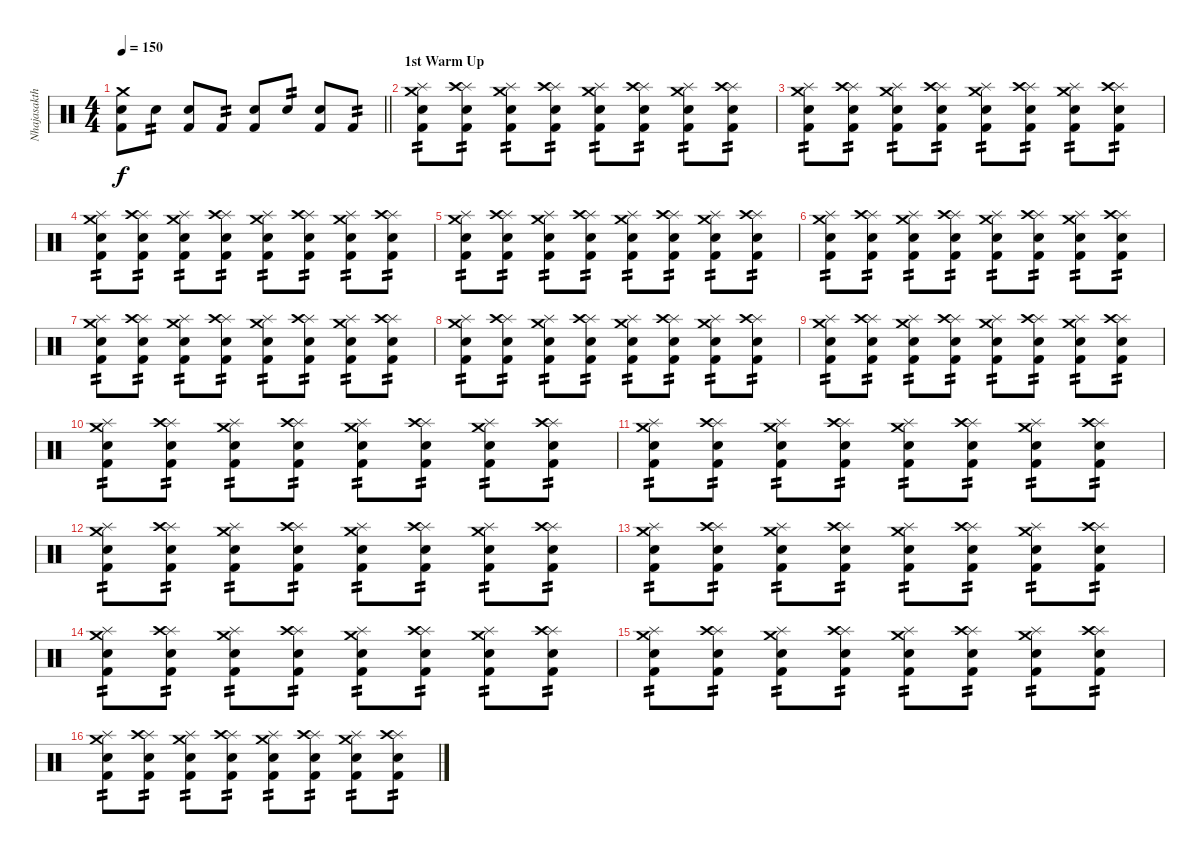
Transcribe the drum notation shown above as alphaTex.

\track ("Nhajasakthee" "Nhajasakth") {instrument percussion}
\staff {score}
\articulation defaults
\ts (4 4)
\tempo 150
\clef neutral
\barLineRight lightlight
\ks c
("Crash medium (hit)" "Kick (hit) 2" "Electric Snare (hit)").8{dy f} "Electric Snare (hit)".8{tp 2} ("Kick (hit) 2" "Electric Snare (hit)").8 "Kick (hit) 2".8{tp 2} ("Kick (hit) 2" "Electric Snare (hit)").8 "Electric Snare (hit)".8{tp 2} ("Kick (hit) 2" "Electric Snare (hit)").8 "Kick (hit) 2".8{tp 2} |
\section ("" "1st Warm Up")
("Splash (hit)" "Crash medium (hit)" "Kick (hit) 2" "Electric Snare (hit)").8{tp 2} ("Splash (hit)" "Crash high (hit)" "Kick (hit) 2" "Electric Snare (hit)").8{tp 2} ("Splash (hit)" "Crash medium (hit)" "Kick (hit) 2" "Electric Snare (hit)").8{tp 2} ("Splash (hit)" "Crash high (hit)" "Kick (hit) 2" "Electric Snare (hit)").8{tp 2} ("Splash (hit)" "Crash medium (hit)" "Kick (hit) 2" "Electric Snare (hit)").8{tp 2} ("Splash (hit)" "Crash high (hit)" "Kick (hit) 2" "Electric Snare (hit)").8{tp 2} ("Splash (hit)" "Crash medium (hit)" "Kick (hit) 2" "Electric Snare (hit)").8{tp 2} ("Splash (hit)" "Crash high (hit)" "Kick (hit) 2" "Electric Snare (hit)").8{tp 2} |
("Splash (hit)" "Crash medium (hit)" "Kick (hit) 2" "Electric Snare (hit)").8{tp 2} ("Splash (hit)" "Crash high (hit)" "Kick (hit) 2" "Electric Snare (hit)").8{tp 2} ("Splash (hit)" "Crash medium (hit)" "Kick (hit) 2" "Electric Snare (hit)").8{tp 2} ("Splash (hit)" "Crash high (hit)" "Kick (hit) 2" "Electric Snare (hit)").8{tp 2} ("Splash (hit)" "Crash medium (hit)" "Kick (hit) 2" "Electric Snare (hit)").8{tp 2} ("Splash (hit)" "Crash high (hit)" "Kick (hit) 2" "Electric Snare (hit)").8{tp 2} ("Splash (hit)" "Crash medium (hit)" "Kick (hit) 2" "Electric Snare (hit)").8{tp 2} ("Splash (hit)" "Crash high (hit)" "Kick (hit) 2" "Electric Snare (hit)").8{tp 2} |
("Splash (hit)" "Crash medium (hit)" "Kick (hit) 2" "Electric Snare (hit)").8{tp 2} ("Splash (hit)" "Crash high (hit)" "Kick (hit) 2" "Electric Snare (hit)").8{tp 2} ("Splash (hit)" "Crash medium (hit)" "Kick (hit) 2" "Electric Snare (hit)").8{tp 2} ("Splash (hit)" "Crash high (hit)" "Kick (hit) 2" "Electric Snare (hit)").8{tp 2} ("Splash (hit)" "Crash medium (hit)" "Kick (hit) 2" "Electric Snare (hit)").8{tp 2} ("Splash (hit)" "Crash high (hit)" "Kick (hit) 2" "Electric Snare (hit)").8{tp 2} ("Splash (hit)" "Crash medium (hit)" "Kick (hit) 2" "Electric Snare (hit)").8{tp 2} ("Splash (hit)" "Crash high (hit)" "Kick (hit) 2" "Electric Snare (hit)").8{tp 2} |
("Splash (hit)" "Crash medium (hit)" "Kick (hit) 2" "Electric Snare (hit)").8{tp 2} ("Splash (hit)" "Crash high (hit)" "Kick (hit) 2" "Electric Snare (hit)").8{tp 2} ("Splash (hit)" "Crash medium (hit)" "Kick (hit) 2" "Electric Snare (hit)").8{tp 2} ("Splash (hit)" "Crash high (hit)" "Kick (hit) 2" "Electric Snare (hit)").8{tp 2} ("Splash (hit)" "Crash medium (hit)" "Kick (hit) 2" "Electric Snare (hit)").8{tp 2} ("Splash (hit)" "Crash high (hit)" "Kick (hit) 2" "Electric Snare (hit)").8{tp 2} ("Splash (hit)" "Crash medium (hit)" "Kick (hit) 2" "Electric Snare (hit)").8{tp 2} ("Splash (hit)" "Crash high (hit)" "Kick (hit) 2" "Electric Snare (hit)").8{tp 2} |
("Splash (hit)" "Crash medium (hit)" "Kick (hit) 2" "Electric Snare (hit)").8{tp 2} ("Splash (hit)" "Crash high (hit)" "Kick (hit) 2" "Electric Snare (hit)").8{tp 2} ("Splash (hit)" "Crash medium (hit)" "Kick (hit) 2" "Electric Snare (hit)").8{tp 2} ("Splash (hit)" "Crash high (hit)" "Kick (hit) 2" "Electric Snare (hit)").8{tp 2} ("Splash (hit)" "Crash medium (hit)" "Kick (hit) 2" "Electric Snare (hit)").8{tp 2} ("Splash (hit)" "Crash high (hit)" "Kick (hit) 2" "Electric Snare (hit)").8{tp 2} ("Splash (hit)" "Crash medium (hit)" "Kick (hit) 2" "Electric Snare (hit)").8{tp 2} ("Splash (hit)" "Crash high (hit)" "Kick (hit) 2" "Electric Snare (hit)").8{tp 2} |
("Splash (hit)" "Crash medium (hit)" "Kick (hit) 2" "Electric Snare (hit)").8{tp 2} ("Splash (hit)" "Crash high (hit)" "Kick (hit) 2" "Electric Snare (hit)").8{tp 2} ("Splash (hit)" "Crash medium (hit)" "Kick (hit) 2" "Electric Snare (hit)").8{tp 2} ("Splash (hit)" "Crash high (hit)" "Kick (hit) 2" "Electric Snare (hit)").8{tp 2} ("Splash (hit)" "Crash medium (hit)" "Kick (hit) 2" "Electric Snare (hit)").8{tp 2} ("Splash (hit)" "Crash high (hit)" "Kick (hit) 2" "Electric Snare (hit)").8{tp 2} ("Splash (hit)" "Crash medium (hit)" "Kick (hit) 2" "Electric Snare (hit)").8{tp 2} ("Splash (hit)" "Crash high (hit)" "Kick (hit) 2" "Electric Snare (hit)").8{tp 2} |
("Splash (hit)" "Crash medium (hit)" "Kick (hit) 2" "Electric Snare (hit)").8{tp 2} ("Splash (hit)" "Crash high (hit)" "Kick (hit) 2" "Electric Snare (hit)").8{tp 2} ("Splash (hit)" "Crash medium (hit)" "Kick (hit) 2" "Electric Snare (hit)").8{tp 2} ("Splash (hit)" "Crash high (hit)" "Kick (hit) 2" "Electric Snare (hit)").8{tp 2} ("Splash (hit)" "Crash medium (hit)" "Kick (hit) 2" "Electric Snare (hit)").8{tp 2} ("Splash (hit)" "Crash high (hit)" "Kick (hit) 2" "Electric Snare (hit)").8{tp 2} ("Splash (hit)" "Crash medium (hit)" "Kick (hit) 2" "Electric Snare (hit)").8{tp 2} ("Splash (hit)" "Crash high (hit)" "Kick (hit) 2" "Electric Snare (hit)").8{tp 2} |
("Splash (hit)" "Crash medium (hit)" "Kick (hit) 2" "Electric Snare (hit)").8{tp 2} ("Splash (hit)" "Crash high (hit)" "Kick (hit) 2" "Electric Snare (hit)").8{tp 2} ("Splash (hit)" "Crash medium (hit)" "Kick (hit) 2" "Electric Snare (hit)").8{tp 2} ("Splash (hit)" "Crash high (hit)" "Kick (hit) 2" "Electric Snare (hit)").8{tp 2} ("Splash (hit)" "Crash medium (hit)" "Kick (hit) 2" "Electric Snare (hit)").8{tp 2} ("Splash (hit)" "Crash high (hit)" "Kick (hit) 2" "Electric Snare (hit)").8{tp 2} ("Splash (hit)" "Crash medium (hit)" "Kick (hit) 2" "Electric Snare (hit)").8{tp 2} ("Splash (hit)" "Crash high (hit)" "Kick (hit) 2" "Electric Snare (hit)").8{tp 2} |
("Splash (hit)" "Crash medium (hit)" "Kick (hit) 2" "Electric Snare (hit)").8{tp 2} ("Splash (hit)" "Crash high (hit)" "Kick (hit) 2" "Electric Snare (hit)").8{tp 2} ("Splash (hit)" "Crash medium (hit)" "Kick (hit) 2" "Electric Snare (hit)").8{tp 2} ("Splash (hit)" "Crash high (hit)" "Kick (hit) 2" "Electric Snare (hit)").8{tp 2} ("Splash (hit)" "Crash medium (hit)" "Kick (hit) 2" "Electric Snare (hit)").8{tp 2} ("Splash (hit)" "Crash high (hit)" "Kick (hit) 2" "Electric Snare (hit)").8{tp 2} ("Splash (hit)" "Crash medium (hit)" "Kick (hit) 2" "Electric Snare (hit)").8{tp 2} ("Splash (hit)" "Crash high (hit)" "Kick (hit) 2" "Electric Snare (hit)").8{tp 2} |
("Splash (hit)" "Crash medium (hit)" "Kick (hit) 2" "Electric Snare (hit)").8{tp 2} ("Splash (hit)" "Crash high (hit)" "Kick (hit) 2" "Electric Snare (hit)").8{tp 2} ("Splash (hit)" "Crash medium (hit)" "Kick (hit) 2" "Electric Snare (hit)").8{tp 2} ("Splash (hit)" "Crash high (hit)" "Kick (hit) 2" "Electric Snare (hit)").8{tp 2} ("Splash (hit)" "Crash medium (hit)" "Kick (hit) 2" "Electric Snare (hit)").8{tp 2} ("Splash (hit)" "Crash high (hit)" "Kick (hit) 2" "Electric Snare (hit)").8{tp 2} ("Splash (hit)" "Crash medium (hit)" "Kick (hit) 2" "Electric Snare (hit)").8{tp 2} ("Splash (hit)" "Crash high (hit)" "Kick (hit) 2" "Electric Snare (hit)").8{tp 2} |
("Splash (hit)" "Crash medium (hit)" "Kick (hit) 2" "Electric Snare (hit)").8{tp 2} ("Splash (hit)" "Crash high (hit)" "Kick (hit) 2" "Electric Snare (hit)").8{tp 2} ("Splash (hit)" "Crash medium (hit)" "Kick (hit) 2" "Electric Snare (hit)").8{tp 2} ("Splash (hit)" "Crash high (hit)" "Kick (hit) 2" "Electric Snare (hit)").8{tp 2} ("Splash (hit)" "Crash medium (hit)" "Kick (hit) 2" "Electric Snare (hit)").8{tp 2} ("Splash (hit)" "Crash high (hit)" "Kick (hit) 2" "Electric Snare (hit)").8{tp 2} ("Splash (hit)" "Crash medium (hit)" "Kick (hit) 2" "Electric Snare (hit)").8{tp 2} ("Splash (hit)" "Crash high (hit)" "Kick (hit) 2" "Electric Snare (hit)").8{tp 2} |
("Splash (hit)" "Crash medium (hit)" "Kick (hit) 2" "Electric Snare (hit)").8{tp 2} ("Splash (hit)" "Crash high (hit)" "Kick (hit) 2" "Electric Snare (hit)").8{tp 2} ("Splash (hit)" "Crash medium (hit)" "Kick (hit) 2" "Electric Snare (hit)").8{tp 2} ("Splash (hit)" "Crash high (hit)" "Kick (hit) 2" "Electric Snare (hit)").8{tp 2} ("Splash (hit)" "Crash medium (hit)" "Kick (hit) 2" "Electric Snare (hit)").8{tp 2} ("Splash (hit)" "Crash high (hit)" "Kick (hit) 2" "Electric Snare (hit)").8{tp 2} ("Splash (hit)" "Crash medium (hit)" "Kick (hit) 2" "Electric Snare (hit)").8{tp 2} ("Splash (hit)" "Crash high (hit)" "Kick (hit) 2" "Electric Snare (hit)").8{tp 2} |
("Splash (hit)" "Crash medium (hit)" "Kick (hit) 2" "Electric Snare (hit)").8{tp 2} ("Splash (hit)" "Crash high (hit)" "Kick (hit) 2" "Electric Snare (hit)").8{tp 2} ("Splash (hit)" "Crash medium (hit)" "Kick (hit) 2" "Electric Snare (hit)").8{tp 2} ("Splash (hit)" "Crash high (hit)" "Kick (hit) 2" "Electric Snare (hit)").8{tp 2} ("Splash (hit)" "Crash medium (hit)" "Kick (hit) 2" "Electric Snare (hit)").8{tp 2} ("Splash (hit)" "Crash high (hit)" "Kick (hit) 2" "Electric Snare (hit)").8{tp 2} ("Splash (hit)" "Crash medium (hit)" "Kick (hit) 2" "Electric Snare (hit)").8{tp 2} ("Splash (hit)" "Crash high (hit)" "Kick (hit) 2" "Electric Snare (hit)").8{tp 2} |
("Splash (hit)" "Crash medium (hit)" "Kick (hit) 2" "Electric Snare (hit)").8{tp 2} ("Splash (hit)" "Crash high (hit)" "Kick (hit) 2" "Electric Snare (hit)").8{tp 2} ("Splash (hit)" "Crash medium (hit)" "Kick (hit) 2" "Electric Snare (hit)").8{tp 2} ("Splash (hit)" "Crash high (hit)" "Kick (hit) 2" "Electric Snare (hit)").8{tp 2} ("Splash (hit)" "Crash medium (hit)" "Kick (hit) 2" "Electric Snare (hit)").8{tp 2} ("Splash (hit)" "Crash high (hit)" "Kick (hit) 2" "Electric Snare (hit)").8{tp 2} ("Splash (hit)" "Crash medium (hit)" "Kick (hit) 2" "Electric Snare (hit)").8{tp 2} ("Splash (hit)" "Crash high (hit)" "Kick (hit) 2" "Electric Snare (hit)").8{tp 2} |
("Splash (hit)" "Crash medium (hit)" "Kick (hit) 2" "Electric Snare (hit)").8{tp 2} ("Splash (hit)" "Crash high (hit)" "Kick (hit) 2" "Electric Snare (hit)").8{tp 2} ("Splash (hit)" "Crash medium (hit)" "Kick (hit) 2" "Electric Snare (hit)").8{tp 2} ("Splash (hit)" "Crash high (hit)" "Kick (hit) 2" "Electric Snare (hit)").8{tp 2} ("Splash (hit)" "Crash medium (hit)" "Kick (hit) 2" "Electric Snare (hit)").8{tp 2} ("Splash (hit)" "Crash high (hit)" "Kick (hit) 2" "Electric Snare (hit)").8{tp 2} ("Splash (hit)" "Crash medium (hit)" "Kick (hit) 2" "Electric Snare (hit)").8{tp 2} ("Splash (hit)" "Crash high (hit)" "Kick (hit) 2" "Electric Snare (hit)").8{tp 2}
